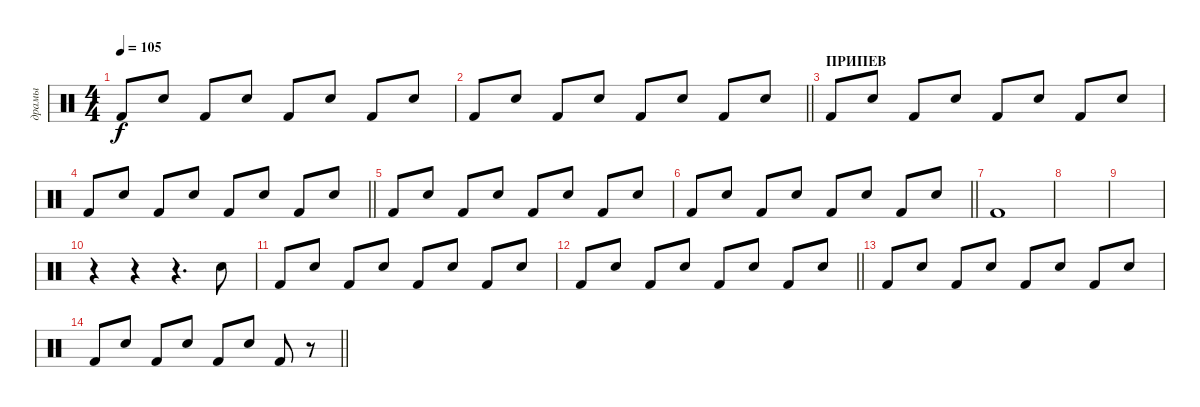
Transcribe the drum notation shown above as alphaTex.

\track ("драмы" "драмы") {instrument percussion}
\staff {score}
\articulation defaults
\ts (4 4)
\tempo 105
\clef neutral
\ks c "Kick (hit) 2".8{dy f} "Electric Snare (hit)".8 "Kick (hit) 2".8 "Electric Snare (hit)".8 "Kick (hit) 2".8 "Electric Snare (hit)".8 "Kick (hit) 2".8 "Electric Snare (hit)".8
|
\barLineRight lightlight "Kick (hit) 2".8 "Electric Snare (hit)".8 "Kick (hit) 2".8 "Electric Snare (hit)".8 "Kick (hit) 2".8 "Electric Snare (hit)".8 "Kick (hit) 2".8 "Electric Snare (hit)".8
|
\section ("" "ПРИПЕВ")
"Kick (hit) 2".8 "Electric Snare (hit)".8 "Kick (hit) 2".8 "Electric Snare (hit)".8 "Kick (hit) 2".8 "Electric Snare (hit)".8 "Kick (hit) 2".8 "Electric Snare (hit)".8 |
\barLineRight lightlight "Kick (hit) 2".8 "Electric Snare (hit)".8 "Kick (hit) 2".8 "Electric Snare (hit)".8 "Kick (hit) 2".8 "Electric Snare (hit)".8 "Kick (hit) 2".8 "Electric Snare (hit)".8
|
"Kick (hit) 2".8 "Electric Snare (hit)".8 "Kick (hit) 2".8 "Electric Snare (hit)".8 "Kick (hit) 2".8 "Electric Snare (hit)".8 "Kick (hit) 2".8 "Electric Snare (hit)".8 |
\barLineRight lightlight "Kick (hit) 2".8 "Electric Snare (hit)".8 "Kick (hit) 2".8 "Electric Snare (hit)".8 "Kick (hit) 2".8 "Electric Snare (hit)".8 "Kick (hit) 2".8 "Electric Snare (hit)".8
|
"Kick (hit) 2".1 |
|
|
r.4 r.4 r.4{d} "Electric Snare (hit)".8 |
"Kick (hit) 2".8 "Electric Snare (hit)".8 "Kick (hit) 2".8 "Electric Snare (hit)".8 "Kick (hit) 2".8 "Electric Snare (hit)".8 "Kick (hit) 2".8 "Electric Snare (hit)".8 |
\barLineRight lightlight "Kick (hit) 2".8 "Electric Snare (hit)".8 "Kick (hit) 2".8 "Electric Snare (hit)".8 "Kick (hit) 2".8 "Electric Snare (hit)".8 "Kick (hit) 2".8 "Electric Snare (hit)".8
|
"Kick (hit) 2".8 "Electric Snare (hit)".8 "Kick (hit) 2".8 "Electric Snare (hit)".8 "Kick (hit) 2".8 "Electric Snare (hit)".8 "Kick (hit) 2".8 "Electric Snare (hit)".8 |
\barLineRight lightlight "Kick (hit) 2".8 "Electric Snare (hit)".8 "Kick (hit) 2".8 "Electric Snare (hit)".8 "Kick (hit) 2".8 "Electric Snare (hit)".8 "Kick (hit) 2".8
r.8
